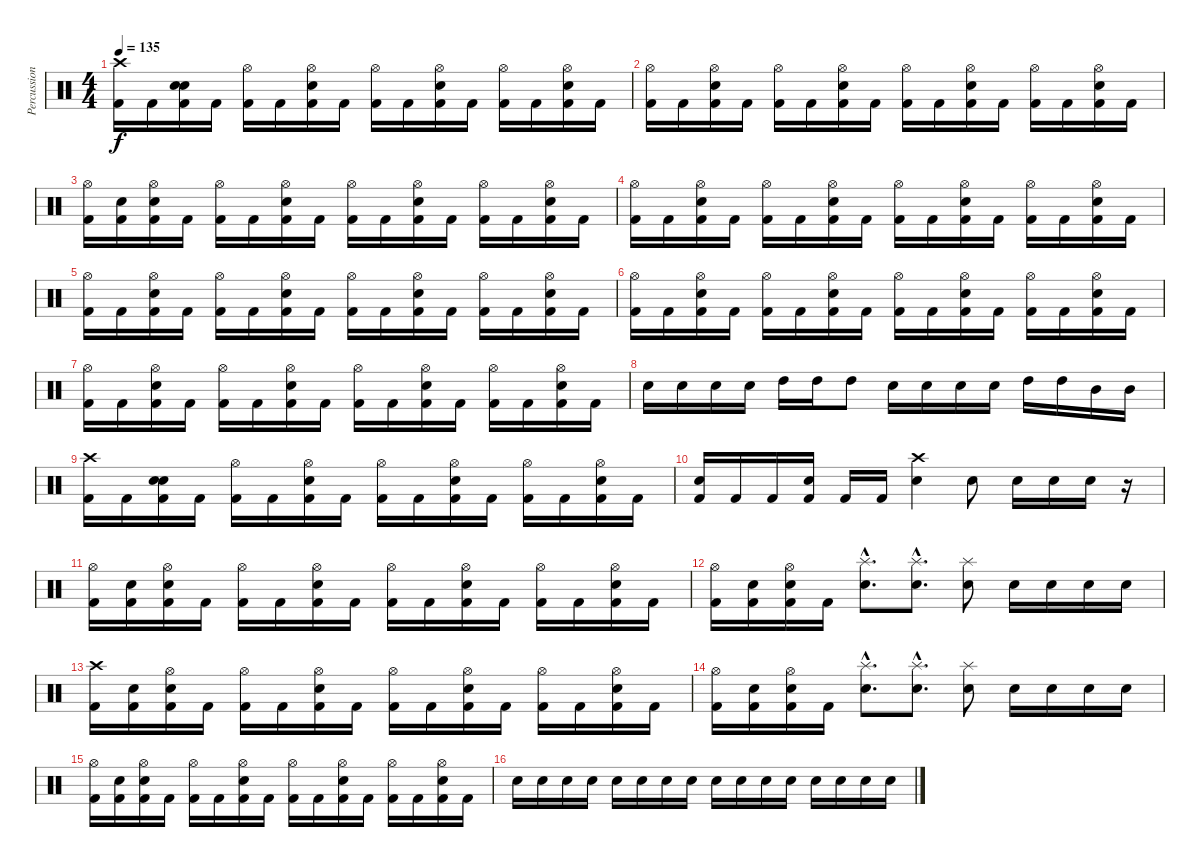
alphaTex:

\track ("Percussion" "Percussion") {instrument percussion}
\staff {score}
\articulation defaults
\ts (4 4)
\tempo 135
\clef neutral
\ks c
("Crash high (hit)" "Kick (hit) 2").16{dy f} "Kick (hit) 2".16 ("Snare (hit)" "Snare (hit) 2" "Kick (hit) 2").16 "Kick (hit) 2".16 ("Hi-Hat (open)" "Kick (hit) 2").16 "Kick (hit) 2".16 ("Hi-Hat (open)" "Snare (hit) 2" "Kick (hit) 2").16 "Kick (hit) 2".16 ("Hi-Hat (open)" "Kick (hit) 2").16 "Kick (hit) 2".16 ("Hi-Hat (open)" "Snare (hit) 2" "Kick (hit) 2").16 "Kick (hit) 2".16 ("Hi-Hat (open)" "Kick (hit) 2").16 "Kick (hit) 2".16 ("Hi-Hat (open)" "Snare (hit) 2" "Kick (hit) 2").16 "Kick (hit) 2".16 |
("Hi-Hat (open)" "Kick (hit) 2").16 "Kick (hit) 2".16 ("Hi-Hat (open)" "Snare (hit) 2" "Kick (hit) 2").16 "Kick (hit) 2".16 ("Hi-Hat (open)" "Kick (hit) 2").16 "Kick (hit) 2".16 ("Hi-Hat (open)" "Snare (hit) 2" "Kick (hit) 2").16 "Kick (hit) 2".16 ("Hi-Hat (open)" "Kick (hit) 2").16 "Kick (hit) 2".16 ("Hi-Hat (open)" "Snare (hit) 2" "Kick (hit) 2").16 "Kick (hit) 2".16 ("Hi-Hat (open)" "Kick (hit) 2").16 "Kick (hit) 2".16 ("Hi-Hat (open)" "Snare (hit) 2" "Kick (hit) 2").16 "Kick (hit) 2".16 |
("Hi-Hat (open)" "Kick (hit) 2").16 ("Snare (hit)" "Kick (hit) 2").16 ("Hi-Hat (open)" "Snare (hit) 2" "Kick (hit) 2").16 "Kick (hit) 2".16 ("Hi-Hat (open)" "Kick (hit) 2").16 "Kick (hit) 2".16 ("Hi-Hat (open)" "Snare (hit) 2" "Kick (hit) 2").16 "Kick (hit) 2".16 ("Hi-Hat (open)" "Kick (hit) 2").16 "Kick (hit) 2".16 ("Hi-Hat (open)" "Snare (hit) 2" "Kick (hit) 2").16 "Kick (hit) 2".16 ("Hi-Hat (open)" "Kick (hit) 2").16 "Kick (hit) 2".16 ("Hi-Hat (open)" "Snare (hit) 2" "Kick (hit) 2").16 "Kick (hit) 2".16 |
("Hi-Hat (open)" "Kick (hit) 2").16 "Kick (hit) 2".16 ("Hi-Hat (open)" "Snare (hit) 2" "Kick (hit) 2").16 "Kick (hit) 2".16 ("Hi-Hat (open)" "Kick (hit) 2").16 "Kick (hit) 2".16 ("Hi-Hat (open)" "Snare (hit) 2" "Kick (hit) 2").16 "Kick (hit) 2".16 ("Hi-Hat (open)" "Kick (hit) 2").16 "Kick (hit) 2".16 ("Hi-Hat (open)" "Snare (hit) 2" "Kick (hit) 2").16 "Kick (hit) 2".16 ("Hi-Hat (open)" "Kick (hit) 2").16 "Kick (hit) 2".16 ("Hi-Hat (open)" "Snare (hit) 2" "Kick (hit) 2").16 "Kick (hit) 2".16 |
("Hi-Hat (open)" "Kick (hit) 2").16 "Kick (hit) 2".16 ("Hi-Hat (open)" "Snare (hit) 2" "Kick (hit) 2").16 "Kick (hit) 2".16 ("Hi-Hat (open)" "Kick (hit) 2").16 "Kick (hit) 2".16 ("Hi-Hat (open)" "Snare (hit) 2" "Kick (hit) 2").16 "Kick (hit) 2".16 ("Hi-Hat (open)" "Kick (hit) 2").16 "Kick (hit) 2".16 ("Hi-Hat (open)" "Snare (hit) 2" "Kick (hit) 2").16 "Kick (hit) 2".16 ("Hi-Hat (open)" "Kick (hit) 2").16 "Kick (hit) 2".16 ("Hi-Hat (open)" "Snare (hit) 2" "Kick (hit) 2").16 "Kick (hit) 2".16 |
("Hi-Hat (open)" "Kick (hit) 2").16 "Kick (hit) 2".16 ("Hi-Hat (open)" "Snare (hit) 2" "Kick (hit) 2").16 "Kick (hit) 2".16 ("Hi-Hat (open)" "Kick (hit) 2").16 "Kick (hit) 2".16 ("Hi-Hat (open)" "Snare (hit) 2" "Kick (hit) 2").16 "Kick (hit) 2".16 ("Hi-Hat (open)" "Kick (hit) 2").16 "Kick (hit) 2".16 ("Hi-Hat (open)" "Snare (hit) 2" "Kick (hit) 2").16 "Kick (hit) 2".16 ("Hi-Hat (open)" "Kick (hit) 2").16 "Kick (hit) 2".16 ("Hi-Hat (open)" "Snare (hit) 2" "Kick (hit) 2").16 "Kick (hit) 2".16 |
("Hi-Hat (open)" "Kick (hit) 2").16 "Kick (hit) 2".16 ("Hi-Hat (open)" "Snare (hit) 2" "Kick (hit) 2").16 "Kick (hit) 2".16 ("Hi-Hat (open)" "Kick (hit) 2").16 "Kick (hit) 2".16 ("Hi-Hat (open)" "Snare (hit) 2" "Kick (hit) 2").16 "Kick (hit) 2".16 ("Hi-Hat (open)" "Kick (hit) 2").16 "Kick (hit) 2".16 ("Hi-Hat (open)" "Snare (hit) 2" "Kick (hit) 2").16 "Kick (hit) 2".16 ("Hi-Hat (open)" "Kick (hit) 2").16 "Kick (hit) 2".16 ("Hi-Hat (open)" "Snare (hit) 2" "Kick (hit) 2").16 "Kick (hit) 2".16 |
"Snare (hit) 2".16 "Snare (hit) 2".16 "Snare (hit) 2".16 "Snare (hit) 2".16 "High Tom (hit)".16 "High Tom (hit)".16 "High Tom (hit)".8 "Snare (hit) 2".16 "Snare (hit) 2".16 "Snare (hit) 2".16 "Snare (hit) 2".16 "High Tom (hit)".16 "High Tom (hit)".16 "Mid Tom (hit)".16 "Mid Tom (hit)".16 |
("Crash high (hit)" "Kick (hit) 2").16 "Kick (hit) 2".16 ("Snare (hit)" "Snare (hit) 2" "Kick (hit) 2").16 "Kick (hit) 2".16 ("Hi-Hat (open)" "Kick (hit) 2").16 "Kick (hit) 2".16 ("Hi-Hat (open)" "Snare (hit) 2" "Kick (hit) 2").16 "Kick (hit) 2".16 ("Hi-Hat (open)" "Kick (hit) 2").16 "Kick (hit) 2".16 ("Hi-Hat (open)" "Snare (hit) 2" "Kick (hit) 2").16 "Kick (hit) 2".16 ("Hi-Hat (open)" "Kick (hit) 2").16 "Kick (hit) 2".16 ("Hi-Hat (open)" "Snare (hit) 2" "Kick (hit) 2").16 "Kick (hit) 2".16 |
("Snare (hit) 2" "Kick (hit) 2").16 "Kick (hit) 2".16 "Kick (hit) 2".16 ("Snare (hit) 2" "Kick (hit) 2").16 "Kick (hit) 2".16 "Kick (hit) 2".16 ("Crash high (hit)" "Snare (hit) 2").4 "Snare (hit) 2".8 "Snare (hit) 2".16 "Snare (hit) 2".16 "Snare (hit) 2".16 r.16 |
("Hi-Hat (open)" "Kick (hit) 2").16 ("Snare (hit)" "Kick (hit) 2").16 ("Hi-Hat (open)" "Snare (hit) 2" "Kick (hit) 2").16 "Kick (hit) 2".16 ("Hi-Hat (open)" "Kick (hit) 2").16 "Kick (hit) 2".16 ("Hi-Hat (open)" "Snare (hit) 2" "Kick (hit) 2").16 "Kick (hit) 2".16 ("Hi-Hat (open)" "Kick (hit) 2").16 "Kick (hit) 2".16 ("Hi-Hat (open)" "Snare (hit) 2" "Kick (hit) 2").16 "Kick (hit) 2".16 ("Hi-Hat (open)" "Kick (hit) 2").16 "Kick (hit) 2".16 ("Hi-Hat (open)" "Snare (hit) 2" "Kick (hit) 2").16 "Kick (hit) 2".16 |
("Hi-Hat (open)" "Kick (hit) 2").16 ("Snare (hit)" "Kick (hit) 2").16 ("Hi-Hat (open)" "Snare (hit) 2" "Kick (hit) 2").16 "Kick (hit) 2".16 ("Splash (hit)"{hac} "Snare (hit) 2"{hac}).8{d} ("Splash (hit)"{hac} "Snare (hit) 2"{hac}).8{d} ("Splash (hit)" "Snare (hit) 2").8 "Snare (hit) 2".16 "Snare (hit) 2".16 "Snare (hit) 2".16 "Snare (hit) 2".16 |
("Crash high (hit)" "Kick (hit) 2").16 ("Snare (hit)" "Kick (hit) 2").16 ("Hi-Hat (open)" "Snare (hit) 2" "Kick (hit) 2").16 "Kick (hit) 2".16 ("Hi-Hat (open)" "Kick (hit) 2").16 "Kick (hit) 2".16 ("Hi-Hat (open)" "Snare (hit) 2" "Kick (hit) 2").16 "Kick (hit) 2".16 ("Hi-Hat (open)" "Kick (hit) 2").16 "Kick (hit) 2".16 ("Hi-Hat (open)" "Snare (hit) 2" "Kick (hit) 2").16 "Kick (hit) 2".16 ("Hi-Hat (open)" "Kick (hit) 2").16 "Kick (hit) 2".16 ("Hi-Hat (open)" "Snare (hit) 2" "Kick (hit) 2").16 "Kick (hit) 2".16 |
("Hi-Hat (open)" "Kick (hit) 2").16 ("Snare (hit)" "Kick (hit) 2").16 ("Hi-Hat (open)" "Snare (hit) 2" "Kick (hit) 2").16 "Kick (hit) 2".16 ("Splash (hit)"{hac} "Snare (hit) 2"{hac}).8{d} ("Splash (hit)"{hac} "Snare (hit) 2"{hac}).8{d} ("Splash (hit)" "Snare (hit) 2").8 "Snare (hit) 2".16 "Snare (hit) 2".16 "Snare (hit) 2".16 "Snare (hit) 2".16 |
("Hi-Hat (open)" "Kick (hit) 2").16 ("Snare (hit)" "Kick (hit) 2").16 ("Hi-Hat (open)" "Snare (hit) 2" "Kick (hit) 2").16 "Kick (hit) 2".16 ("Hi-Hat (open)" "Kick (hit) 2").16 "Kick (hit) 2".16 ("Hi-Hat (open)" "Snare (hit) 2" "Kick (hit) 2").16 "Kick (hit) 2".16 ("Hi-Hat (open)" "Kick (hit) 2").16 "Kick (hit) 2".16 ("Hi-Hat (open)" "Snare (hit) 2" "Kick (hit) 2").16 "Kick (hit) 2".16 ("Hi-Hat (open)" "Kick (hit) 2").16 "Kick (hit) 2".16 ("Hi-Hat (open)" "Snare (hit) 2" "Kick (hit) 2").16 "Kick (hit) 2".16 |
"Snare (hit) 2".16 "Snare (hit) 2".16 "Snare (hit) 2".16 "Snare (hit) 2".16 "Snare (hit) 2".16 "Snare (hit) 2".16 "Snare (hit) 2".16 "Snare (hit) 2".16 "Snare (hit) 2".16 "Snare (hit) 2".16 "Snare (hit) 2".16 "Snare (hit) 2".16 "Snare (hit) 2".16 "Snare (hit) 2".16 "Snare (hit) 2".16 "Snare (hit) 2".16
